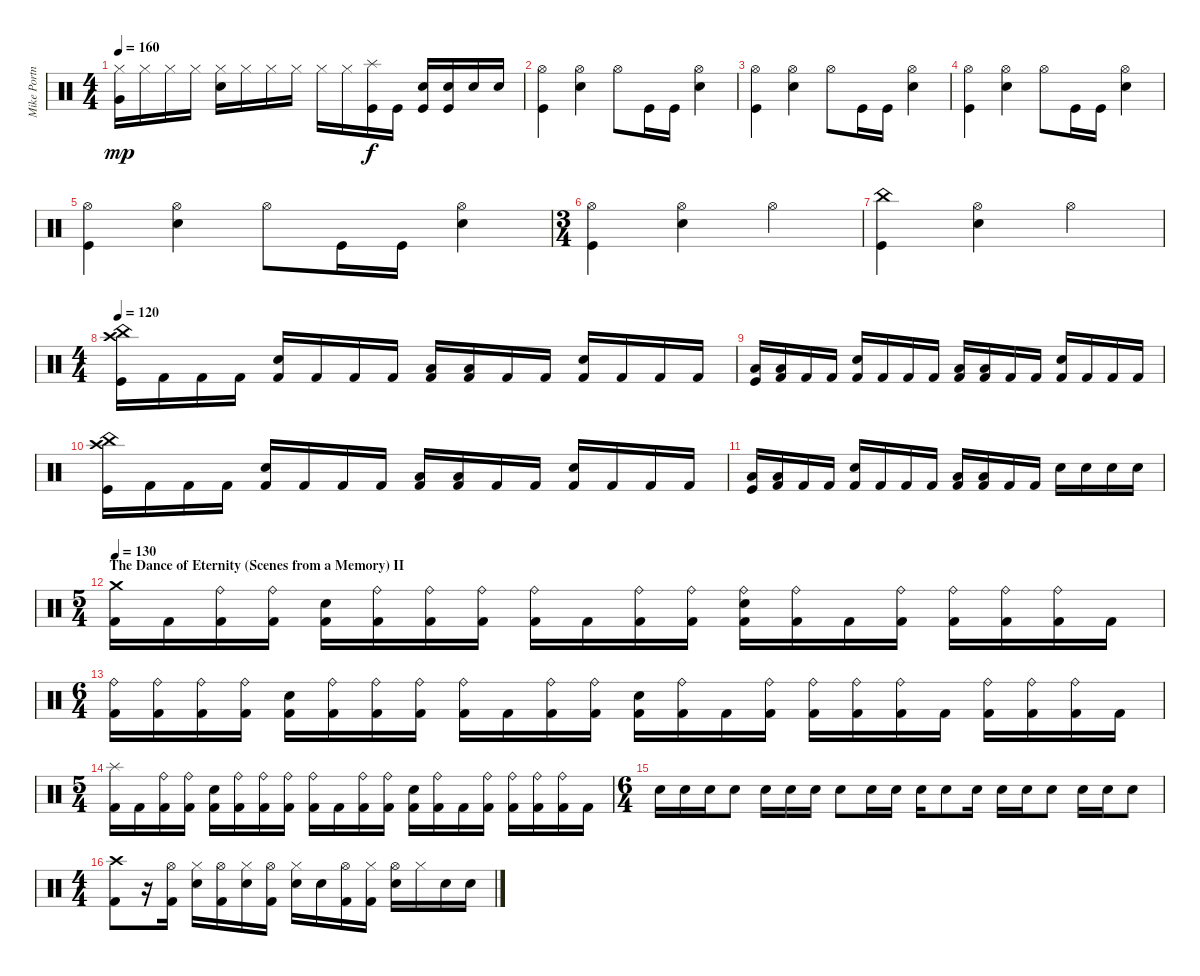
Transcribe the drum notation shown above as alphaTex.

\track ("Mike Portnoy Drums" "Mike Portn") {instrument percussion}
\staff {score}
\articulation defaults
\ts (4 4)
\tempo 160
\clef neutral
\ks c
("Hi-Hat (closed)" "Very Low Tom (hit)").16{dy mp} "Hi-Hat (closed)".16 "Hi-Hat (closed)".16 "Hi-Hat (closed)".16 ("Hi-Hat (closed)" "Snare (hit) 2").16 "Hi-Hat (closed)".16 "Hi-Hat (closed)".16 "Hi-Hat (closed)".16 "Hi-Hat (closed)".16 "Hi-Hat (closed)".16 ("Kick (hit)" "Splash (hit)").16{dy f} "Kick (hit)".16 ("Kick (hit)" "Snare (hit) 2").16 ("Kick (hit)" "Snare (hit) 2").16 "Snare (hit) 2".16 "Snare (hit) 2".16 |
("Kick (hit)" "Hi-Hat (open)").4 ("Snare (hit) 2" "Hi-Hat (open)").4 "Hi-Hat (open)".8 "Kick (hit)".16 "Kick (hit)".16 ("Snare (hit) 2" "Hi-Hat (open)").4 |
("Kick (hit)" "Hi-Hat (open)").4 ("Snare (hit) 2" "Hi-Hat (open)").4 "Hi-Hat (open)".8 "Kick (hit)".16 "Kick (hit)".16 ("Snare (hit) 2" "Hi-Hat (open)").4 |
("Kick (hit)" "Hi-Hat (open)").4 ("Snare (hit) 2" "Hi-Hat (open)").4 "Hi-Hat (open)".8 "Kick (hit)".16 "Kick (hit)".16 ("Snare (hit) 2" "Hi-Hat (open)").4 |
("Kick (hit)" "Hi-Hat (open)").4 ("Snare (hit) 2" "Hi-Hat (open)").4 "Hi-Hat (open)".8 "Kick (hit)".16 "Kick (hit)".16 ("Snare (hit) 2" "Hi-Hat (open)").4 |
\ts (3 4)
("Kick (hit)" "Hi-Hat (open)").4 ("Snare (hit) 2" "Hi-Hat (open)").4 "Hi-Hat (open)".4 |
("Kick (hit)" "China (hit)").4 ("Snare (hit) 2" "Hi-Hat (open)").4 "Hi-Hat (open)".4 |
\ts (4 4)
\tempo 120
("China (hit)" "Crash high (hit)" "Kick (hit)").16 "Kick (hit) 2".16 "Kick (hit) 2".16 "Kick (hit) 2".16 ("Snare (hit) 2" "Kick (hit) 2").16 "Kick (hit) 2".16 "Kick (hit) 2".16 "Kick (hit) 2".16 ("Low Tom (hit)" "Kick (hit) 2").16 ("Low Floor Tom (hit)" "Kick (hit) 2").16 "Kick (hit) 2".16 "Kick (hit) 2".16 ("Snare (hit) 2" "Kick (hit) 2").16 "Kick (hit) 2".16 "Kick (hit) 2".16 "Kick (hit) 2".16 |
("Low Tom (hit)" "Kick (hit)").16 ("Low Floor Tom (hit)" "Kick (hit) 2").16 "Kick (hit) 2".16 "Kick (hit) 2".16 ("Snare (hit) 2" "Kick (hit) 2").16 "Kick (hit) 2".16 "Kick (hit) 2".16 "Kick (hit) 2".16 ("Low Tom (hit)" "Kick (hit) 2").16 ("Low Floor Tom (hit)" "Kick (hit) 2").16 "Kick (hit) 2".16 "Kick (hit) 2".16 ("Snare (hit) 2" "Kick (hit) 2").16 "Kick (hit) 2".16 "Kick (hit) 2".16 "Kick (hit) 2".16 |
("China (hit)" "Crash high (hit)" "Kick (hit)").16 "Kick (hit) 2".16 "Kick (hit) 2".16 "Kick (hit) 2".16 ("Snare (hit) 2" "Kick (hit) 2").16 "Kick (hit) 2".16 "Kick (hit) 2".16 "Kick (hit) 2".16 ("Low Tom (hit)" "Kick (hit) 2").16 ("Low Floor Tom (hit)" "Kick (hit) 2").16 "Kick (hit) 2".16 "Kick (hit) 2".16 ("Snare (hit) 2" "Kick (hit) 2").16 "Kick (hit) 2".16 "Kick (hit) 2".16 "Kick (hit) 2".16 |
("Low Tom (hit)" "Kick (hit)").16 ("Low Floor Tom (hit)" "Kick (hit) 2").16 "Kick (hit) 2".16 "Kick (hit) 2".16 ("Snare (hit) 2" "Kick (hit) 2").16 "Kick (hit) 2".16 "Kick (hit) 2".16 "Kick (hit) 2".16 ("Low Tom (hit)" "Kick (hit) 2").16 ("Low Floor Tom (hit)" "Kick (hit) 2").16 "Kick (hit) 2".16 "Kick (hit) 2".16 "Snare (hit) 2".16 "Snare (hit) 2".16 "Snare (hit) 2".16 "Snare (hit) 2".16 |
\ts (5 4)
\section ("" "The Dance of Eternity (Scenes from a Memory) II")
\tempo 130
("Crash medium (hit)" "Kick (hit) 2").16 "Kick (hit) 2".16 ("Ride (bell)" "Kick (hit) 2").16 ("Ride (bell)" "Kick (hit) 2").16 ("Snare (hit) 2" "Kick (hit) 2").16 ("Ride (bell)" "Kick (hit) 2").16 ("Ride (bell)" "Kick (hit) 2").16 ("Ride (bell)" "Kick (hit) 2").16 ("Ride (bell)" "Kick (hit) 2").16 "Kick (hit) 2".16 ("Ride (bell)" "Kick (hit) 2").16 ("Ride (bell)" "Kick (hit) 2").16 ("Ride (bell)" "Snare (hit) 2" "Kick (hit) 2").16 ("Ride (bell)" "Kick (hit) 2").16 "Kick (hit) 2".16 ("Ride (bell)" "Kick (hit) 2").16 ("Ride (bell)" "Kick (hit) 2").16 ("Ride (bell)" "Kick (hit) 2").16 ("Ride (bell)" "Kick (hit) 2").16 "Kick (hit) 2".16 |
\ts (6 4)
("Ride (bell)" "Kick (hit) 2").16 ("Ride (bell)" "Kick (hit) 2").16 ("Ride (bell)" "Kick (hit) 2").16 ("Ride (bell)" "Kick (hit) 2").16 ("Snare (hit) 2" "Kick (hit) 2").16 ("Ride (bell)" "Kick (hit) 2").16 ("Ride (bell)" "Kick (hit) 2").16 ("Ride (bell)" "Kick (hit) 2").16 ("Ride (bell)" "Kick (hit) 2").16 "Kick (hit) 2".16 ("Ride (bell)" "Kick (hit) 2").16 ("Ride (bell)" "Kick (hit) 2").16 ("Snare (hit) 2" "Kick (hit) 2").16 ("Ride (bell)" "Kick (hit) 2").16 "Kick (hit) 2".16 ("Ride (bell)" "Kick (hit) 2").16 ("Ride (bell)" "Kick (hit) 2").16 ("Ride (bell)" "Kick (hit) 2").16 ("Ride (bell)" "Kick (hit) 2").16 "Kick (hit) 2".16 ("Ride (bell)" "Kick (hit) 2").16 ("Ride (bell)" "Kick (hit) 2").16 ("Ride (bell)" "Kick (hit) 2").16 "Kick (hit) 2".16 |
\ts (5 4)
("Splash (hit)" "Kick (hit) 2").16 "Kick (hit) 2".16 ("Ride (bell)" "Kick (hit) 2").16 ("Ride (bell)" "Kick (hit) 2").16 ("Snare (hit) 2" "Kick (hit) 2").16 ("Ride (bell)" "Kick (hit) 2").16 ("Ride (bell)" "Kick (hit) 2").16 ("Ride (bell)" "Kick (hit) 2").16 ("Ride (bell)" "Kick (hit) 2").16 "Kick (hit) 2".16 ("Ride (bell)" "Kick (hit) 2").16 ("Ride (bell)" "Kick (hit) 2").16 ("Snare (hit) 2" "Kick (hit) 2").16 ("Ride (bell)" "Kick (hit) 2").16 "Kick (hit) 2".16 ("Ride (bell)" "Kick (hit) 2").16 ("Ride (bell)" "Kick (hit) 2").16 ("Ride (bell)" "Kick (hit) 2").16 ("Ride (bell)" "Kick (hit) 2").16 "Kick (hit) 2".16 |
\ts (6 4)
"Snare (hit) 2".16 "Snare (hit) 2".16 "Snare (hit) 2".16 "Snare (hit) 2".8 "Snare (hit) 2".16 "Snare (hit) 2".16 "Snare (hit) 2".16 "Snare (hit) 2".8 "Snare (hit) 2".16 "Snare (hit) 2".16 "Snare (hit) 2".16 "Snare (hit) 2".8 "Snare (hit) 2".16 "Snare (hit) 2".16 "Snare (hit) 2".16 "Snare (hit) 2".8 "Snare (hit) 2".16 "Snare (hit) 2".16 "Snare (hit) 2".8 |
\ts (4 4)
("Crash high (hit)" "Kick (hit) 2").8 r.16 ("Hi-Hat (open)" "Kick (hit) 2").16 ("Hi-Hat (closed)" "Snare (hit) 2").16 ("Hi-Hat (open)" "Kick (hit) 2").16 ("Hi-Hat (closed)" "Snare (hit) 2").16 ("Hi-Hat (open)" "Kick (hit) 2").16 ("Hi-Hat (closed)" "Snare (hit) 2").16 "Snare (hit) 2".16 ("Hi-Hat (open)" "Kick (hit) 2").16 ("Hi-Hat (closed)" "Kick (hit) 2").16 ("Hi-Hat (open)" "Snare (hit) 2").16 "Hi-Hat (closed)".16 "Snare (hit) 2".16 "Snare (hit) 2".16
